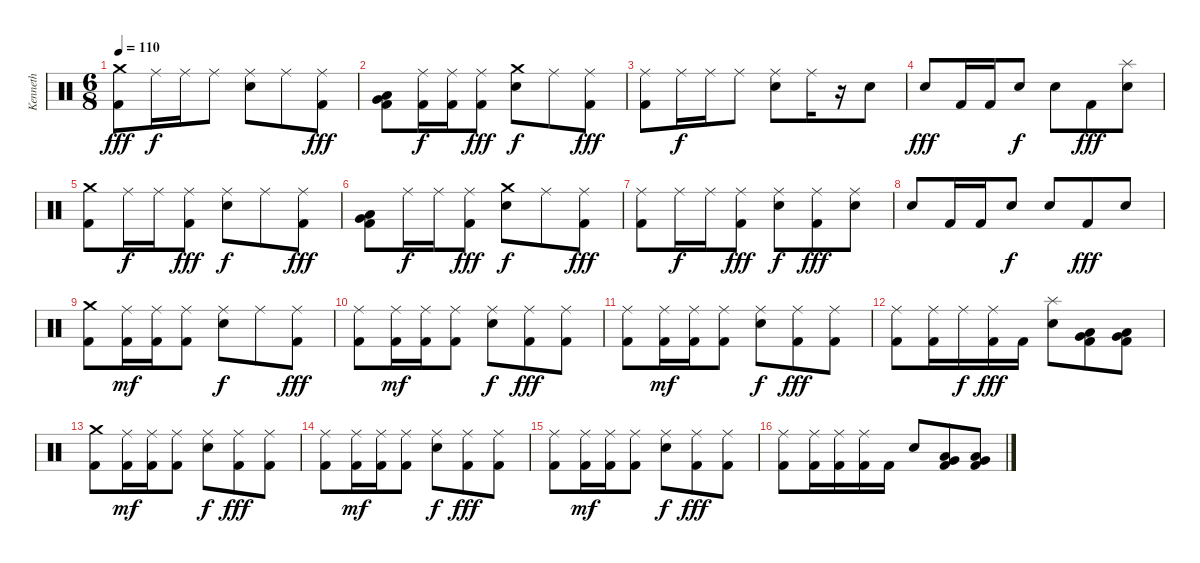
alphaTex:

\track ("Kenneth " "Kenneth ") {instrument percussion}
\staff {score}
\articulation defaults
\ts (6 8)
\tempo 110
\clef neutral
\ks c
("Crash medium (hit)" "Kick (hit) 2").8{dy fff} "Ride (middle)".16{dy f} "Ride (middle)".16 "Ride (middle)".8 ("Ride (middle)" "Electric Snare (hit)").8 "Ride (middle)".8 ("Ride (middle)" "Kick (hit) 2").8{dy fff} |
("Very Low Tom (hit)" "Low Tom (hit)" "Kick (hit) 2").8 ("Ride (middle)" "Kick (hit) 2").16{dy f} ("Ride (middle)" "Kick (hit) 2").16 ("Ride (middle)" "Kick (hit) 2").8{dy fff} ("Crash medium (hit)" "Electric Snare (hit)").8{dy f} "Ride (middle)".8 ("Ride (middle)" "Kick (hit) 2").8{dy fff} |
("Ride (middle)" "Kick (hit) 2").8 "Ride (middle)".16{dy f} "Ride (middle)".16 "Ride (middle)".8 ("Ride (middle)" "Electric Snare (hit)").8 "Ride (middle)".16 r.16 "Electric Snare (hit)".8 |
"Electric Snare (hit)".8{dy fff} "Kick (hit) 2".16 "Kick (hit) 2".16 "Electric Snare (hit)".8{dy f} "Electric Snare (hit)".8 "Kick (hit) 2".8{dy fff} ("Splash (hit)" "Electric Snare (hit)").8 |
("Crash medium (hit)" "Kick (hit) 2").8 "Ride (middle)".16{dy f} "Ride (middle)".16 ("Ride (middle)" "Kick (hit) 2").8{dy fff} ("Ride (middle)" "Electric Snare (hit)").8{dy f} "Ride (middle)".8 ("Ride (middle)" "Kick (hit) 2").8{dy fff} |
("Very Low Tom (hit)" "Low Tom (hit)" "Kick (hit) 2").8 "Ride (middle)".16{dy f} "Ride (middle)".16 ("Ride (middle)" "Kick (hit) 2").8{dy fff} ("Crash medium (hit)" "Electric Snare (hit)").8{dy f} "Ride (middle)".8 ("Ride (middle)" "Kick (hit) 2").8{dy fff} |
("Ride (middle)" "Kick (hit) 2").8 "Ride (middle)".16{dy f} "Ride (middle)".16 ("Ride (middle)" "Kick (hit) 2").8{dy fff} ("Ride (middle)" "Electric Snare (hit)").8{dy f} ("Ride (middle)" "Kick (hit) 2").8{dy fff} ("Ride (middle)" "Electric Snare (hit)").8 |
"Electric Snare (hit)".8 "Kick (hit) 2".16 "Kick (hit) 2".16 "Electric Snare (hit)".8{dy f} "Electric Snare (hit)".8 "Kick (hit) 2".8{dy fff} "Electric Snare (hit)".8 |
("Crash medium (hit)" "Kick (hit) 2").8 ("Ride (middle)" "Kick (hit) 2").16{dy mf} ("Ride (middle)" "Kick (hit) 2").16 ("Ride (middle)" "Kick (hit) 2").8 ("Ride (middle)" "Electric Snare (hit)").8{dy f} "Ride (middle)".8 ("Ride (middle)" "Kick (hit) 2").8{dy fff} |
("Ride (middle)" "Kick (hit) 2").8 ("Ride (middle)" "Kick (hit) 2").16{dy mf} ("Ride (middle)" "Kick (hit) 2").16 ("Ride (middle)" "Kick (hit) 2").8 ("Ride (middle)" "Electric Snare (hit)").8{dy f} ("Ride (middle)" "Kick (hit) 2").8{dy fff} ("Ride (middle)" "Kick (hit) 2").8 |
("Ride (middle)" "Kick (hit) 2").8 ("Ride (middle)" "Kick (hit) 2").16{dy mf} ("Ride (middle)" "Kick (hit) 2").16 ("Ride (middle)" "Kick (hit) 2").8 ("Ride (middle)" "Electric Snare (hit)").8{dy f} ("Ride (middle)" "Kick (hit) 2").8{dy fff} ("Ride (middle)" "Kick (hit) 2").8 |
("Ride (middle)" "Kick (hit) 2").8 ("Ride (middle)" "Kick (hit) 2").16 "Ride (middle)".16{dy f} ("Ride (middle)" "Kick (hit) 2").16{dy fff} "Kick (hit) 2".16 ("Splash (hit)" "Electric Snare (hit)").8 ("Very Low Tom (hit)" "Low Tom (hit)" "Kick (hit) 2").8 ("Very Low Tom (hit)" "Low Tom (hit)" "Kick (hit) 2").8 |
("Crash medium (hit)" "Kick (hit) 2").8 ("Ride (middle)" "Kick (hit) 2").16{dy mf} ("Ride (middle)" "Kick (hit) 2").16 ("Ride (middle)" "Kick (hit) 2").8 ("Ride (middle)" "Electric Snare (hit)").8{dy f} ("Ride (middle)" "Kick (hit) 2").8{dy fff} ("Ride (middle)" "Kick (hit) 2").8 |
("Ride (middle)" "Kick (hit) 2").8 ("Ride (middle)" "Kick (hit) 2").16{dy mf} ("Ride (middle)" "Kick (hit) 2").16 ("Ride (middle)" "Kick (hit) 2").8 ("Ride (middle)" "Electric Snare (hit)").8{dy f} ("Ride (middle)" "Kick (hit) 2").8{dy fff} ("Ride (middle)" "Kick (hit) 2").8 |
("Ride (middle)" "Kick (hit) 2").8 ("Ride (middle)" "Kick (hit) 2").16{dy mf} ("Ride (middle)" "Kick (hit) 2").16 ("Ride (middle)" "Kick (hit) 2").8 ("Ride (middle)" "Electric Snare (hit)").8{dy f} ("Ride (middle)" "Kick (hit) 2").8{dy fff} ("Ride (middle)" "Kick (hit) 2").8 |
("Ride (middle)" "Kick (hit) 2").8 ("Ride (middle)" "Kick (hit) 2").16 ("Ride (middle)" "Kick (hit) 2").16 ("Ride (middle)" "Kick (hit) 2").16 "Kick (hit) 2".16 "Electric Snare (hit)".8 ("Very Low Tom (hit)" "Low Tom (hit)" "Kick (hit) 2").8 ("Very Low Tom (hit)" "Low Tom (hit)" "Kick (hit) 2").8
